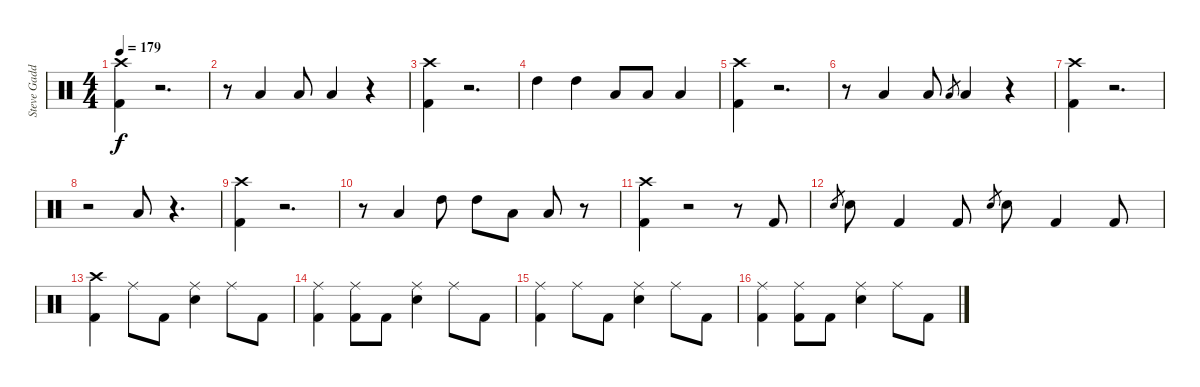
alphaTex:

\track ("Steve Gadd" "Steve Gadd") {instrument percussion}
\staff {score}
\articulation defaults
\ts (4 4)
\tempo 179
\clef neutral
\ks c
("Crash high (hit)" "Kick (hit) 2").4{dy f} r.2{d} |
r.8 "Low Floor Tom (hit)".4 "Low Floor Tom (hit)".8 "Low Tom (hit)".4 r.4 |
("Crash high (hit)" "Kick (hit) 2").4 r.2{d} |
"High Tom (hit)".4 "High Tom (hit)".4 "Low Tom (hit)".8 "Low Tom (hit)".8 "Low Floor Tom (hit)".4 |
("Crash high (hit)" "Kick (hit) 2").4 r.2{d} |
r.8 "Low Floor Tom (hit)".4 "Low Floor Tom (hit)".8 "Low Tom (hit)".8{gr} "Low Tom (hit)".4 r.4 |
("Crash high (hit)" "Kick (hit) 2").4 r.2{d} |
r.2 "Low Tom (hit)".8 r.4{d} |
("Crash high (hit)" "Kick (hit) 2").4 r.2{d} |
r.8 "Low Tom (hit)".4 "High Tom (hit)".8 "High Tom (hit)".8 "Low Tom (hit)".8 "Low Floor Tom (hit)".8 r.8 |
("Crash high (hit)" "Kick (hit) 2").4 r.2 r.8 "Kick (hit) 2".8 |
"Electric Snare (hit)".8{gr} "Electric Snare (hit)".8 "Kick (hit) 2".4 "Kick (hit) 2".8 "Electric Snare (hit)".8{gr} "Electric Snare (hit)".8 "Kick (hit) 2".4 "Kick (hit) 2".8 |
("Crash high (hit)" "Kick (hit) 2").4 "Ride (middle)".8 "Kick (hit) 2".8 ("Ride (middle)" "Electric Snare (hit)").4 "Ride (middle)".8 "Kick (hit) 2".8 |
("Ride (middle)" "Kick (hit) 2").4 ("Ride (middle)" "Kick (hit) 2").8 "Kick (hit) 2".8 ("Ride (middle)" "Electric Snare (hit)").4 "Ride (middle)".8 "Kick (hit) 2".8 |
("Ride (middle)" "Kick (hit) 2").4 "Ride (middle)".8 "Kick (hit) 2".8 ("Ride (middle)" "Electric Snare (hit)").4 "Ride (middle)".8 "Kick (hit) 2".8 |
("Ride (middle)" "Kick (hit) 2").4 ("Ride (middle)" "Kick (hit) 2").8 "Kick (hit) 2".8 ("Ride (middle)" "Electric Snare (hit)").4 "Ride (middle)".8 "Kick (hit) 2".8
